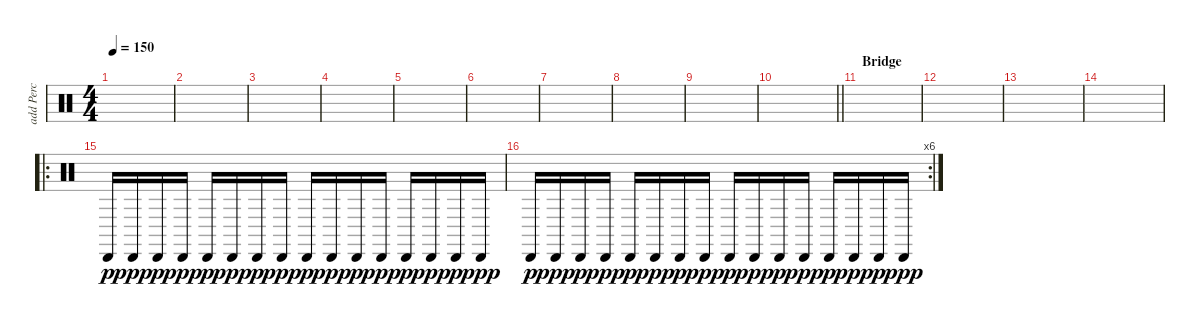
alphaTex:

\track ("add Perc" "add Perc") {instrument percussion}
\staff {score}
\articulation defaults
\ts (4 4)
\tempo 150
\clef neutral
\ks c
|
|
|
|
|
|
|
|
|
\barLineRight lightlight
|
\section ("" "Bridge")
|
|
|
|
\ro "Cabasa (hit)".16{dy p} "Cabasa (hit)".16{dy ppp} "Cabasa (hit)".16{dy p} "Cabasa (hit)".16{dy ppp} "Cabasa (hit)".16{dy p} "Cabasa (hit)".16{dy ppp} "Cabasa (hit)".16{dy p} "Cabasa (hit)".16{dy ppp} "Cabasa (hit)".16{dy p} "Cabasa (hit)".16{dy ppp} "Cabasa (hit)".16{dy p} "Cabasa (hit)".16{dy ppp} "Cabasa (hit)".16{dy p} "Cabasa (hit)".16{dy ppp} "Cabasa (hit)".16{dy p} "Cabasa (hit)".16{dy ppp}
|
\rc 6 "Cabasa (hit)".16{dy p} "Cabasa (hit)".16{dy ppp} "Cabasa (hit)".16{dy p} "Cabasa (hit)".16{dy ppp} "Cabasa (hit)".16{dy p} "Cabasa (hit)".16{dy ppp} "Cabasa (hit)".16{dy p} "Cabasa (hit)".16{dy ppp} "Cabasa (hit)".16{dy p} "Cabasa (hit)".16{dy ppp} "Cabasa (hit)".16{dy p} "Cabasa (hit)".16{dy ppp} "Cabasa (hit)".16{dy p} "Cabasa (hit)".16{dy ppp} "Cabasa (hit)".16{dy p} "Cabasa (hit)".16{dy ppp}
